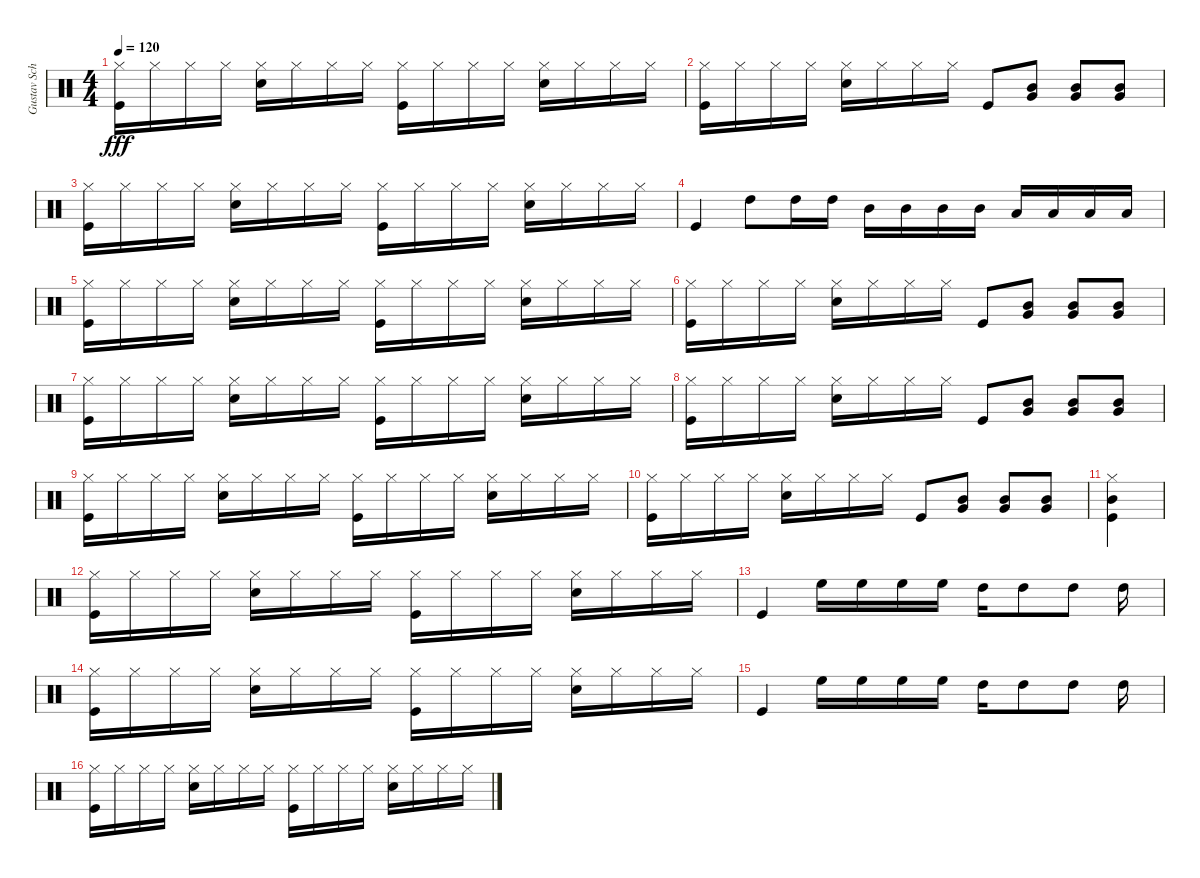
\track ("Gustav Schäfer" "Gustav Sch") {instrument percussion}
\staff {score}
\articulation defaults
\ts (4 4)
\tempo 120
\clef neutral
\ks c
("Hi-Hat (closed)" "Kick (hit)").16{dy fff} "Hi-Hat (closed)".16 "Hi-Hat (closed)".16 "Hi-Hat (closed)".16 ("Hi-Hat (closed)" "Snare (hit) 2").16 "Hi-Hat (closed)".16 "Hi-Hat (closed)".16 "Hi-Hat (closed)".16 ("Hi-Hat (closed)" "Kick (hit)").16 "Hi-Hat (closed)".16 "Hi-Hat (closed)".16 "Hi-Hat (closed)".16 ("Hi-Hat (closed)" "Snare (hit) 2").16 "Hi-Hat (closed)".16 "Hi-Hat (closed)".16 "Hi-Hat (closed)".16 |
("Hi-Hat (closed)" "Kick (hit)").16 "Hi-Hat (closed)".16 "Hi-Hat (closed)".16 "Hi-Hat (closed)".16 ("Hi-Hat (closed)" "Snare (hit) 2").16 "Hi-Hat (closed)".16 "Hi-Hat (closed)".16 "Hi-Hat (closed)".16 "Kick (hit)".8 ("Mid Tom (hit)" "Very Low Tom (hit)").8 ("Mid Tom (hit)" "Very Low Tom (hit)").8 ("Mid Tom (hit)" "Very Low Tom (hit)").8 |
("Hi-Hat (closed)" "Kick (hit)").16 "Hi-Hat (closed)".16 "Hi-Hat (closed)".16 "Hi-Hat (closed)".16 ("Hi-Hat (closed)" "Snare (hit) 2").16 "Hi-Hat (closed)".16 "Hi-Hat (closed)".16 "Hi-Hat (closed)".16 ("Hi-Hat (closed)" "Kick (hit)").16 "Hi-Hat (closed)".16 "Hi-Hat (closed)".16 "Hi-Hat (closed)".16 ("Hi-Hat (closed)" "Snare (hit) 2").16 "Hi-Hat (closed)".16 "Hi-Hat (closed)".16 "Hi-Hat (closed)".16 |
"Kick (hit)".4 "High Tom (hit)".8 "High Tom (hit)".16 "High Tom (hit)".16 "Mid Tom (hit)".16 "Mid Tom (hit)".16 "Mid Tom (hit)".16 "Mid Tom (hit)".16 "Low Tom (hit)".16 "Low Tom (hit)".16 "Low Tom (hit)".16 "Low Tom (hit)".16 |
("Hi-Hat (closed)" "Kick (hit)").16 "Hi-Hat (closed)".16 "Hi-Hat (closed)".16 "Hi-Hat (closed)".16 ("Hi-Hat (closed)" "Snare (hit) 2").16 "Hi-Hat (closed)".16 "Hi-Hat (closed)".16 "Hi-Hat (closed)".16 ("Hi-Hat (closed)" "Kick (hit)").16 "Hi-Hat (closed)".16 "Hi-Hat (closed)".16 "Hi-Hat (closed)".16 ("Hi-Hat (closed)" "Snare (hit) 2").16 "Hi-Hat (closed)".16 "Hi-Hat (closed)".16 "Hi-Hat (closed)".16 |
("Hi-Hat (closed)" "Kick (hit)").16 "Hi-Hat (closed)".16 "Hi-Hat (closed)".16 "Hi-Hat (closed)".16 ("Hi-Hat (closed)" "Snare (hit) 2").16 "Hi-Hat (closed)".16 "Hi-Hat (closed)".16 "Hi-Hat (closed)".16 "Kick (hit)".8 ("Mid Tom (hit)" "Very Low Tom (hit)").8 ("Mid Tom (hit)" "Very Low Tom (hit)").8 ("Mid Tom (hit)" "Very Low Tom (hit)").8 |
("Hi-Hat (closed)" "Kick (hit)").16 "Hi-Hat (closed)".16 "Hi-Hat (closed)".16 "Hi-Hat (closed)".16 ("Hi-Hat (closed)" "Snare (hit) 2").16 "Hi-Hat (closed)".16 "Hi-Hat (closed)".16 "Hi-Hat (closed)".16 ("Hi-Hat (closed)" "Kick (hit)").16 "Hi-Hat (closed)".16 "Hi-Hat (closed)".16 "Hi-Hat (closed)".16 ("Hi-Hat (closed)" "Snare (hit) 2").16 "Hi-Hat (closed)".16 "Hi-Hat (closed)".16 "Hi-Hat (closed)".16 |
("Hi-Hat (closed)" "Kick (hit)").16 "Hi-Hat (closed)".16 "Hi-Hat (closed)".16 "Hi-Hat (closed)".16 ("Hi-Hat (closed)" "Snare (hit) 2").16 "Hi-Hat (closed)".16 "Hi-Hat (closed)".16 "Hi-Hat (closed)".16 "Kick (hit)".8 ("Mid Tom (hit)" "Very Low Tom (hit)").8 ("Mid Tom (hit)" "Very Low Tom (hit)").8 ("Mid Tom (hit)" "Very Low Tom (hit)").8 |
("Hi-Hat (closed)" "Kick (hit)").16 "Hi-Hat (closed)".16 "Hi-Hat (closed)".16 "Hi-Hat (closed)".16 ("Hi-Hat (closed)" "Snare (hit) 2").16 "Hi-Hat (closed)".16 "Hi-Hat (closed)".16 "Hi-Hat (closed)".16 ("Hi-Hat (closed)" "Kick (hit)").16 "Hi-Hat (closed)".16 "Hi-Hat (closed)".16 "Hi-Hat (closed)".16 ("Hi-Hat (closed)" "Snare (hit) 2").16 "Hi-Hat (closed)".16 "Hi-Hat (closed)".16 "Hi-Hat (closed)".16 |
("Hi-Hat (closed)" "Kick (hit)").16 "Hi-Hat (closed)".16 "Hi-Hat (closed)".16 "Hi-Hat (closed)".16 ("Hi-Hat (closed)" "Snare (hit) 2").16 "Hi-Hat (closed)".16 "Hi-Hat (closed)".16 "Hi-Hat (closed)".16 "Kick (hit)".8 ("Mid Tom (hit)" "Very Low Tom (hit)").8 ("Mid Tom (hit)" "Very Low Tom (hit)").8 ("Mid Tom (hit)" "Very Low Tom (hit)").8 |
("Hi-Hat (closed)" "Kick (hit)" "Mid Tom (hit)").4 |
("Hi-Hat (closed)" "Kick (hit)").16 "Hi-Hat (closed)".16 "Hi-Hat (closed)".16 "Hi-Hat (closed)".16 ("Hi-Hat (closed)" "Snare (hit) 2").16 "Hi-Hat (closed)".16 "Hi-Hat (closed)".16 "Hi-Hat (closed)".16 ("Hi-Hat (closed)" "Kick (hit)").16 "Hi-Hat (closed)".16 "Hi-Hat (closed)".16 "Hi-Hat (closed)".16 ("Hi-Hat (closed)" "Snare (hit) 2").16 "Hi-Hat (closed)".16 "Hi-Hat (closed)".16 "Hi-Hat (closed)".16 |
"Kick (hit)".4 "High Floor Tom (hit)".16 "High Floor Tom (hit)".16 "High Floor Tom (hit)".16 "High Floor Tom (hit)".16 "High Tom (hit)".16 "High Tom (hit)".8 "High Tom (hit)".8 "High Tom (hit)".16 |
("Hi-Hat (closed)" "Kick (hit)").16 "Hi-Hat (closed)".16 "Hi-Hat (closed)".16 "Hi-Hat (closed)".16 ("Hi-Hat (closed)" "Snare (hit) 2").16 "Hi-Hat (closed)".16 "Hi-Hat (closed)".16 "Hi-Hat (closed)".16 ("Hi-Hat (closed)" "Kick (hit)").16 "Hi-Hat (closed)".16 "Hi-Hat (closed)".16 "Hi-Hat (closed)".16 ("Hi-Hat (closed)" "Snare (hit) 2").16 "Hi-Hat (closed)".16 "Hi-Hat (closed)".16 "Hi-Hat (closed)".16 |
"Kick (hit)".4 "High Floor Tom (hit)".16 "High Floor Tom (hit)".16 "High Floor Tom (hit)".16 "High Floor Tom (hit)".16 "High Tom (hit)".16 "High Tom (hit)".8 "High Tom (hit)".8 "High Tom (hit)".16 |
("Hi-Hat (closed)" "Kick (hit)").16 "Hi-Hat (closed)".16 "Hi-Hat (closed)".16 "Hi-Hat (closed)".16 ("Hi-Hat (closed)" "Snare (hit) 2").16 "Hi-Hat (closed)".16 "Hi-Hat (closed)".16 "Hi-Hat (closed)".16 ("Hi-Hat (closed)" "Kick (hit)").16 "Hi-Hat (closed)".16 "Hi-Hat (closed)".16 "Hi-Hat (closed)".16 ("Hi-Hat (closed)" "Snare (hit) 2").16 "Hi-Hat (closed)".16 "Hi-Hat (closed)".16 "Hi-Hat (closed)".16
